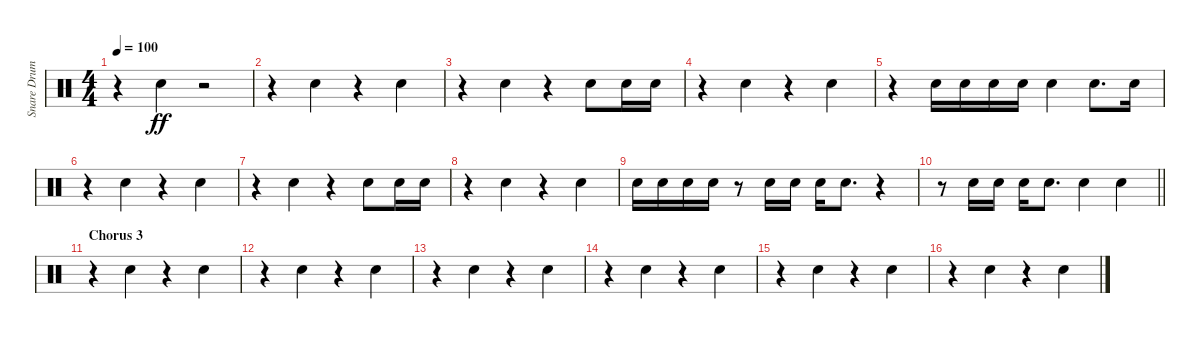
\track ("Snare Drum - reverb" "Snare Drum") {instrument percussion}
\staff {score}
\articulation defaults
\ts (4 4)
\tempo 100
\clef neutral
\ks c
r.4{dy ff} "Snare (hit) 2".4 r.2 |
r.4 "Snare (hit) 2".4 r.4 "Snare (hit) 2".4 |
r.4 "Snare (hit) 2".4 r.4 "Snare (hit) 2".8 "Snare (hit) 2".16 "Snare (hit) 2".16 |
r.4 "Snare (hit) 2".4 r.4 "Snare (hit) 2".4 |
r.4 "Snare (hit) 2".16 "Snare (hit) 2".16 "Snare (hit) 2".16 "Snare (hit) 2".16 "Snare (hit) 2".4 "Snare (hit) 2".8{d} "Snare (hit) 2".16 |
r.4 "Snare (hit) 2".4 r.4 "Snare (hit) 2".4 |
r.4 "Snare (hit) 2".4 r.4 "Snare (hit) 2".8 "Snare (hit) 2".16 "Snare (hit) 2".16 |
r.4 "Snare (hit) 2".4 r.4 "Snare (hit) 2".4 |
"Snare (hit) 2".16 "Snare (hit) 2".16 "Snare (hit) 2".16 "Snare (hit) 2".16 r.8 "Snare (hit) 2".16 "Snare (hit) 2".16 "Snare (hit) 2".16 "Snare (hit) 2".8{d} r.4 |
\barLineRight lightlight
r.8 "Snare (hit) 2".16 "Snare (hit) 2".16 "Snare (hit) 2".16 "Snare (hit) 2".8{d} "Snare (hit) 2".4 "Snare (hit) 2".4 |
\section ("" "Chorus 3")
r.4 "Snare (hit) 2".4 r.4 "Snare (hit) 2".4 |
r.4 "Snare (hit) 2".4 r.4 "Snare (hit) 2".4 |
r.4 "Snare (hit) 2".4 r.4 "Snare (hit) 2".4 |
r.4 "Snare (hit) 2".4 r.4 "Snare (hit) 2".4 |
r.4 "Snare (hit) 2".4 r.4 "Snare (hit) 2".4 |
r.4 "Snare (hit) 2".4 r.4 "Snare (hit) 2".4
